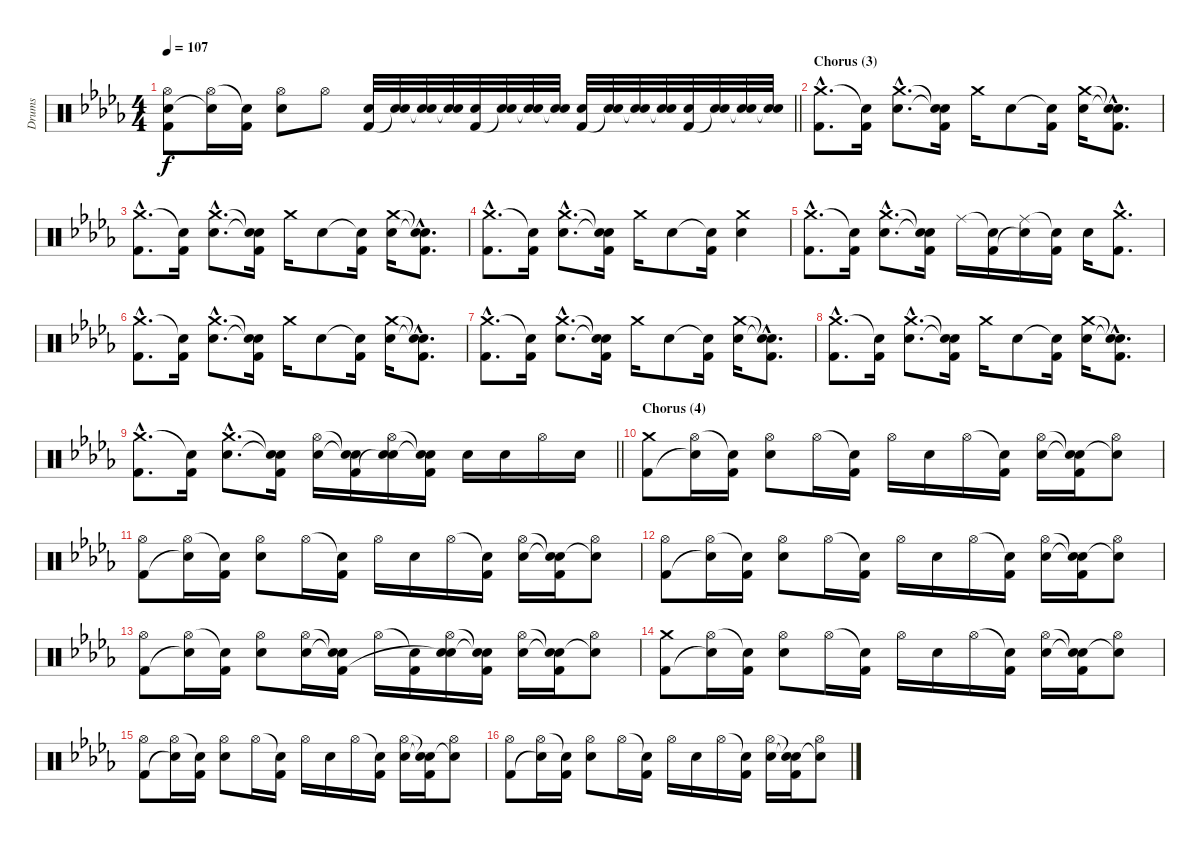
\track ("Drums" "Drums") {instrument percussion}
\staff {score}
\articulation defaults
\ts (4 4)
\tempo 107
\clef neutral
\barLineRight lightlight
\ks bbminor
("Hi-Hat (open)" "Electric Snare (hit)" "Kick (hit) 2").8{dy f} ("Hi-Hat (open)" "Snare (hit)"{t}).16 ("Snare (hit)"{t} "Kick (hit) 2").16 ("Hi-Hat (open)" "Electric Snare (hit)").8 "Hi-Hat (open)".8 ("Electric Snare (hit)" "Kick (hit) 2").32 ("Electric Snare (hit)" "Snare (hit)"{t}).32 ("Electric Snare (hit)" "Snare (hit)"{t}).32 ("Electric Snare (hit)" "Snare (hit)"{t}).32 ("Electric Snare (hit)" "Kick (hit) 2").32 ("Electric Snare (hit)" "Snare (hit)"{t}).32 ("Electric Snare (hit)" "Snare (hit)"{t}).32 ("Electric Snare (hit)" "Snare (hit)"{t}).32 ("Electric Snare (hit)" "Kick (hit) 2").32 ("Electric Snare (hit)" "Snare (hit)"{t}).32 ("Electric Snare (hit)" "Snare (hit)"{t}).32 ("Electric Snare (hit)" "Snare (hit)"{t}).32 ("Electric Snare (hit)" "Kick (hit) 2").32 ("Electric Snare (hit)" "Snare (hit)"{t}).32 ("Electric Snare (hit)" "Snare (hit)"{t}).32 ("Electric Snare (hit)" "Snare (hit)"{t}).32 |
\section ("" "Chorus (3)")
("Crash medium (hit)"{hac} "Kick (hit) 2"{hac}).8{d} ("Snare (hit)"{t} "Kick (hit) 2").16 ("Crash medium (hit)"{hac} "Electric Snare (hit)"{hac}).8{d} ("Snare (hit)"{t} "Snare (hit)"{t} "Kick (hit) 2").16 "Crash medium (hit)".16 "Electric Snare (hit)".8 ("Snare (hit)"{t} "Kick (hit) 2").16 ("Crash medium (hit)" "Electric Snare (hit)").16 ("Snare (hit)"{hac t} "Snare (hit)"{hac t} "Kick (hit) 2"{hac}).8{d} |
("Crash medium (hit)"{hac} "Kick (hit) 2"{hac}).8{d} ("Snare (hit)"{t} "Kick (hit) 2").16 ("Crash medium (hit)"{hac} "Electric Snare (hit)"{hac}).8{d} ("Snare (hit)"{t} "Snare (hit)"{t} "Kick (hit) 2").16 "Crash medium (hit)".16 "Electric Snare (hit)".8 ("Snare (hit)"{t} "Kick (hit) 2").16 ("Crash medium (hit)" "Electric Snare (hit)").16 ("Snare (hit)"{hac t} "Snare (hit)"{hac t} "Kick (hit) 2"{hac}).8{d} |
("Crash medium (hit)"{hac} "Kick (hit) 2"{hac}).8{d} ("Snare (hit)"{t} "Kick (hit) 2").16 ("Crash medium (hit)"{hac} "Electric Snare (hit)"{hac}).8{d} ("Snare (hit)"{t} "Snare (hit)"{t} "Kick (hit) 2").16 "Crash medium (hit)".16 "Electric Snare (hit)".8 ("Snare (hit)"{t} "Kick (hit) 2").16 ("Crash medium (hit)" "Electric Snare (hit)").4 |
("Crash medium (hit)"{hac} "Kick (hit) 2"{hac}).8{d} ("Snare (hit)"{t} "Kick (hit) 2").16 ("Crash medium (hit)"{hac} "Electric Snare (hit)"{hac}).8{d} ("Snare (hit)"{t} "Snare (hit)"{t} "Kick (hit) 2").16 "Ride (middle)".16 ("Snare (hit)"{t} "Kick (hit) 2").16 ("Ride (middle)" "Snare (hit)"{t}).16 ("Snare (hit)"{t} "Kick (hit) 2").16 "Electric Snare (hit)".16 ("Crash medium (hit)"{hac} "Kick (hit) 2"{hac}).8{d} |
("Crash medium (hit)"{hac} "Kick (hit) 2"{hac}).8{d} ("Snare (hit)"{t} "Kick (hit) 2").16 ("Crash medium (hit)"{hac} "Electric Snare (hit)"{hac}).8{d} ("Snare (hit)"{t} "Snare (hit)"{t} "Kick (hit) 2").16 "Crash medium (hit)".16 "Electric Snare (hit)".8 ("Snare (hit)"{t} "Kick (hit) 2").16 ("Crash medium (hit)" "Electric Snare (hit)").16 ("Snare (hit)"{hac t} "Snare (hit)"{hac t} "Kick (hit) 2"{hac}).8{d} |
("Crash medium (hit)"{hac} "Kick (hit) 2"{hac}).8{d} ("Snare (hit)"{t} "Kick (hit) 2").16 ("Crash medium (hit)"{hac} "Electric Snare (hit)"{hac}).8{d} ("Snare (hit)"{t} "Snare (hit)"{t} "Kick (hit) 2").16 "Crash medium (hit)".16 "Electric Snare (hit)".8 ("Snare (hit)"{t} "Kick (hit) 2").16 ("Crash medium (hit)" "Electric Snare (hit)").16 ("Snare (hit)"{hac t} "Snare (hit)"{hac t} "Kick (hit) 2"{hac}).8{d} |
("Crash medium (hit)"{hac} "Kick (hit) 2"{hac}).8{d} ("Snare (hit)"{t} "Kick (hit) 2").16 ("Crash medium (hit)"{hac} "Electric Snare (hit)"{hac}).8{d} ("Snare (hit)"{t} "Snare (hit)"{t} "Kick (hit) 2").16 "Crash medium (hit)".16 "Electric Snare (hit)".8 ("Snare (hit)"{t} "Kick (hit) 2").16 ("Crash medium (hit)" "Electric Snare (hit)").16 ("Snare (hit)"{hac t} "Snare (hit)"{hac t} "Kick (hit) 2"{hac}).8{d} |
\barLineRight lightlight
("Crash medium (hit)"{hac} "Kick (hit) 2"{hac}).8{d} ("Snare (hit)"{t} "Kick (hit) 2").16 ("Crash medium (hit)"{hac} "Electric Snare (hit)"{hac}).8{d} ("Snare (hit)"{t} "Snare (hit)"{t} "Kick (hit) 2").16 ("Hi-Hat (open)" "Electric Snare (hit)").16 ("Snare (hit)"{t} "Snare (hit)"{t} "Kick (hit) 2").16 ("Hi-Hat (open)" "Electric Snare (hit)" "Snare (hit)"{t}).16 ("Snare (hit)"{t} "Snare (hit)"{t} "Kick (hit) 2").16 "Electric Snare (hit)".16 "Electric Snare (hit)".16 "Hi-Hat (open)".16 "Electric Snare (hit)".16 |
\section ("" "Chorus (4)")
("Crash medium (hit)" "Kick (hit) 2").8 ("Hi-Hat (open)" "Snare (hit)"{t}).16 ("Snare (hit)"{t} "Kick (hit) 2").16 ("Hi-Hat (open)" "Electric Snare (hit)").8 "Hi-Hat (open)".16 ("Snare (hit)"{t} "Kick (hit) 2").16 "Hi-Hat (open)".16 "Electric Snare (hit)".16 "Hi-Hat (open)".16 ("Snare (hit)"{t} "Kick (hit) 2").16 ("Hi-Hat (open)" "Electric Snare (hit)").16 ("Snare (hit)"{t} "Snare (hit)"{t} "Kick (hit) 2").16 ("Hi-Hat (open)" "Snare (hit)"{t}).8 |
("Hi-Hat (open)" "Kick (hit) 2").8 ("Hi-Hat (open)" "Snare (hit)"{t}).16 ("Snare (hit)"{t} "Kick (hit) 2").16 ("Hi-Hat (open)" "Electric Snare (hit)").8 "Hi-Hat (open)".16 ("Snare (hit)"{t} "Kick (hit) 2").16 "Hi-Hat (open)".16 "Electric Snare (hit)".16 "Hi-Hat (open)".16 ("Snare (hit)"{t} "Kick (hit) 2").16 ("Hi-Hat (open)" "Electric Snare (hit)").16 ("Snare (hit)"{t} "Snare (hit)"{t} "Kick (hit) 2").16 ("Hi-Hat (open)" "Snare (hit)"{t}).8 |
("Hi-Hat (open)" "Kick (hit) 2").8 ("Hi-Hat (open)" "Snare (hit)"{t}).16 ("Snare (hit)"{t} "Kick (hit) 2").16 ("Hi-Hat (open)" "Electric Snare (hit)").8 "Hi-Hat (open)".16 ("Snare (hit)"{t} "Kick (hit) 2").16 "Hi-Hat (open)".16 "Electric Snare (hit)".16 "Hi-Hat (open)".16 ("Snare (hit)"{t} "Kick (hit) 2").16 ("Hi-Hat (open)" "Electric Snare (hit)").16 ("Snare (hit)"{t} "Snare (hit)"{t} "Kick (hit) 2").16 ("Hi-Hat (open)" "Snare (hit)"{t}).8 |
("Hi-Hat (open)" "Kick (hit) 2").8 ("Hi-Hat (open)" "Snare (hit)"{t}).16 ("Snare (hit)"{t} "Kick (hit) 2").16 ("Hi-Hat (open)" "Electric Snare (hit)").8 ("Hi-Hat (open)" "Electric Snare (hit)").16 ("Snare (hit)"{t} "Snare (hit)"{t} "Kick (hit) 2").16 "Hi-Hat (open)".16 ("Snare (hit)"{t} "Kick (hit) 2").16 ("Hi-Hat (open)" "Electric Snare (hit)" "Snare (hit)"{t}).16 ("Snare (hit)"{t} "Snare (hit)"{t} "Kick (hit) 2").16 ("Hi-Hat (open)" "Electric Snare (hit)").16 ("Snare (hit)"{t} "Snare (hit)"{t} "Kick (hit) 2").16 ("Hi-Hat (open)" "Snare (hit)"{t}).8 |
("Crash medium (hit)" "Kick (hit) 2").8 ("Hi-Hat (open)" "Snare (hit)"{t}).16 ("Snare (hit)"{t} "Kick (hit) 2").16 ("Hi-Hat (open)" "Electric Snare (hit)").8 "Hi-Hat (open)".16 ("Snare (hit)"{t} "Kick (hit) 2").16 "Hi-Hat (open)".16 "Electric Snare (hit)".16 "Hi-Hat (open)".16 ("Snare (hit)"{t} "Kick (hit) 2").16 ("Hi-Hat (open)" "Electric Snare (hit)").16 ("Snare (hit)"{t} "Snare (hit)"{t} "Kick (hit) 2").16 ("Hi-Hat (open)" "Snare (hit)"{t}).8 |
("Hi-Hat (open)" "Kick (hit) 2").8 ("Hi-Hat (open)" "Snare (hit)"{t}).16 ("Snare (hit)"{t} "Kick (hit) 2").16 ("Hi-Hat (open)" "Electric Snare (hit)").8 "Hi-Hat (open)".16 ("Snare (hit)"{t} "Kick (hit) 2").16 "Hi-Hat (open)".16 "Electric Snare (hit)".16 "Hi-Hat (open)".16 ("Snare (hit)"{t} "Kick (hit) 2").16 ("Hi-Hat (open)" "Electric Snare (hit)").16 ("Snare (hit)"{t} "Snare (hit)"{t} "Kick (hit) 2").16 ("Hi-Hat (open)" "Snare (hit)"{t}).8 |
("Hi-Hat (open)" "Kick (hit) 2").8 ("Hi-Hat (open)" "Snare (hit)"{t}).16 ("Snare (hit)"{t} "Kick (hit) 2").16 ("Hi-Hat (open)" "Electric Snare (hit)").8 "Hi-Hat (open)".16 ("Snare (hit)"{t} "Kick (hit) 2").16 "Hi-Hat (open)".16 "Electric Snare (hit)".16 "Hi-Hat (open)".16 ("Snare (hit)"{t} "Kick (hit) 2").16 ("Hi-Hat (open)" "Electric Snare (hit)").16 ("Snare (hit)"{t} "Snare (hit)"{t} "Kick (hit) 2").16 ("Hi-Hat (open)" "Snare (hit)"{t}).8
